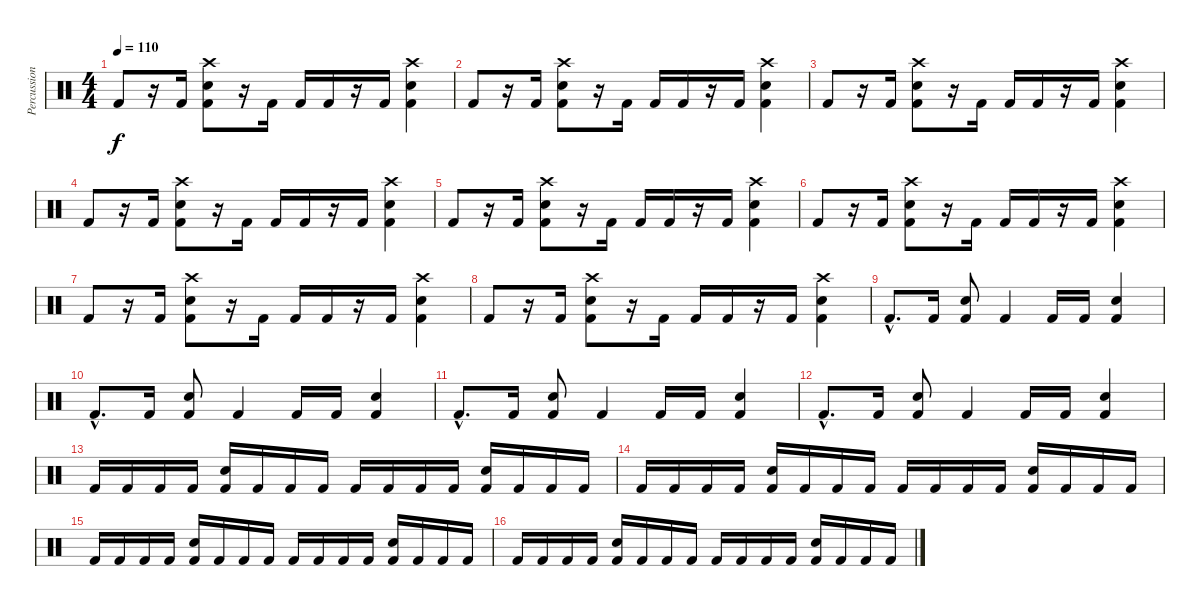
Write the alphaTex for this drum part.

\track ("Percussioni" "Percussion") {instrument percussion}
\staff {score}
\articulation defaults
\ts (4 4)
\tempo 110
\clef neutral
\ks c "Kick (hit) 2".8{dy f}
r.16 "Kick (hit) 2".16 ("Snare (hit) 2" "Kick (hit) 2" "Crash high (hit)").8 r.16 "Kick (hit) 2".16 "Kick (hit) 2".16 "Kick (hit) 2".16 r.16 "Kick (hit) 2".16 ("Snare (hit) 2" "Kick (hit) 2" "Crash high (hit)").4 |
"Kick (hit) 2".8 r.16 "Kick (hit) 2".16 ("Snare (hit) 2" "Kick (hit) 2" "Crash high (hit)").8 r.16 "Kick (hit) 2".16 "Kick (hit) 2".16 "Kick (hit) 2".16 r.16 "Kick (hit) 2".16 ("Snare (hit) 2" "Kick (hit) 2" "Crash high (hit)").4 |
"Kick (hit) 2".8 r.16 "Kick (hit) 2".16 ("Snare (hit) 2" "Kick (hit) 2" "Crash high (hit)").8 r.16 "Kick (hit) 2".16 "Kick (hit) 2".16 "Kick (hit) 2".16 r.16 "Kick (hit) 2".16 ("Snare (hit) 2" "Kick (hit) 2" "Crash high (hit)").4 |
"Kick (hit) 2".8 r.16 "Kick (hit) 2".16 ("Snare (hit) 2" "Kick (hit) 2" "Crash high (hit)").8 r.16 "Kick (hit) 2".16 "Kick (hit) 2".16 "Kick (hit) 2".16 r.16 "Kick (hit) 2".16 ("Snare (hit) 2" "Kick (hit) 2" "Crash high (hit)").4 |
"Kick (hit) 2".8 r.16 "Kick (hit) 2".16 ("Snare (hit) 2" "Kick (hit) 2" "Crash high (hit)").8 r.16 "Kick (hit) 2".16 "Kick (hit) 2".16 "Kick (hit) 2".16 r.16 "Kick (hit) 2".16 ("Snare (hit) 2" "Kick (hit) 2" "Crash high (hit)").4 |
"Kick (hit) 2".8 r.16 "Kick (hit) 2".16 ("Snare (hit) 2" "Kick (hit) 2" "Crash high (hit)").8 r.16 "Kick (hit) 2".16 "Kick (hit) 2".16 "Kick (hit) 2".16 r.16 "Kick (hit) 2".16 ("Snare (hit) 2" "Kick (hit) 2" "Crash high (hit)").4 |
"Kick (hit) 2".8 r.16 "Kick (hit) 2".16 ("Snare (hit) 2" "Kick (hit) 2" "Crash high (hit)").8 r.16 "Kick (hit) 2".16 "Kick (hit) 2".16 "Kick (hit) 2".16 r.16 "Kick (hit) 2".16 ("Snare (hit) 2" "Kick (hit) 2" "Crash high (hit)").4 |
"Kick (hit) 2".8 r.16 "Kick (hit) 2".16 ("Snare (hit) 2" "Kick (hit) 2" "Crash high (hit)").8 r.16 "Kick (hit) 2".16 "Kick (hit) 2".16 "Kick (hit) 2".16 r.16 "Kick (hit) 2".16 ("Snare (hit) 2" "Kick (hit) 2" "Crash high (hit)").4 |
"Kick (hit) 2"{hac}.8{d} "Kick (hit) 2".16 ("Snare (hit) 2" "Kick (hit) 2").8 "Kick (hit) 2".4 "Kick (hit) 2".16 "Kick (hit) 2".16 ("Snare (hit) 2" "Kick (hit) 2").4 |
"Kick (hit) 2"{hac}.8{d} "Kick (hit) 2".16 ("Snare (hit) 2" "Kick (hit) 2").8 "Kick (hit) 2".4 "Kick (hit) 2".16 "Kick (hit) 2".16 ("Snare (hit) 2" "Kick (hit) 2").4 |
"Kick (hit) 2"{hac}.8{d} "Kick (hit) 2".16 ("Snare (hit) 2" "Kick (hit) 2").8 "Kick (hit) 2".4 "Kick (hit) 2".16 "Kick (hit) 2".16 ("Snare (hit) 2" "Kick (hit) 2").4 |
"Kick (hit) 2"{hac}.8{d} "Kick (hit) 2".16 ("Snare (hit) 2" "Kick (hit) 2").8 "Kick (hit) 2".4 "Kick (hit) 2".16 "Kick (hit) 2".16 ("Snare (hit) 2" "Kick (hit) 2").4 |
"Kick (hit) 2".16 "Kick (hit) 2".16 "Kick (hit) 2".16 "Kick (hit) 2".16 ("Snare (hit) 2" "Kick (hit) 2").16 "Kick (hit) 2".16 "Kick (hit) 2".16 "Kick (hit) 2".16 "Kick (hit) 2".16 "Kick (hit) 2".16 "Kick (hit) 2".16 "Kick (hit) 2".16 ("Snare (hit) 2" "Kick (hit) 2").16 "Kick (hit) 2".16 "Kick (hit) 2".16 "Kick (hit) 2".16 |
"Kick (hit) 2".16 "Kick (hit) 2".16 "Kick (hit) 2".16 "Kick (hit) 2".16 ("Snare (hit) 2" "Kick (hit) 2").16 "Kick (hit) 2".16 "Kick (hit) 2".16 "Kick (hit) 2".16 "Kick (hit) 2".16 "Kick (hit) 2".16 "Kick (hit) 2".16 "Kick (hit) 2".16 ("Snare (hit) 2" "Kick (hit) 2").16 "Kick (hit) 2".16 "Kick (hit) 2".16 "Kick (hit) 2".16 |
"Kick (hit) 2".16 "Kick (hit) 2".16 "Kick (hit) 2".16 "Kick (hit) 2".16 ("Snare (hit) 2" "Kick (hit) 2").16 "Kick (hit) 2".16 "Kick (hit) 2".16 "Kick (hit) 2".16 "Kick (hit) 2".16 "Kick (hit) 2".16 "Kick (hit) 2".16 "Kick (hit) 2".16 ("Snare (hit) 2" "Kick (hit) 2").16 "Kick (hit) 2".16 "Kick (hit) 2".16 "Kick (hit) 2".16 |
"Kick (hit) 2".16 "Kick (hit) 2".16 "Kick (hit) 2".16 "Kick (hit) 2".16 ("Snare (hit) 2" "Kick (hit) 2").16 "Kick (hit) 2".16 "Kick (hit) 2".16 "Kick (hit) 2".16 "Kick (hit) 2".16 "Kick (hit) 2".16 "Kick (hit) 2".16 "Kick (hit) 2".16 ("Snare (hit) 2" "Kick (hit) 2").16 "Kick (hit) 2".16 "Kick (hit) 2".16 "Kick (hit) 2".16
